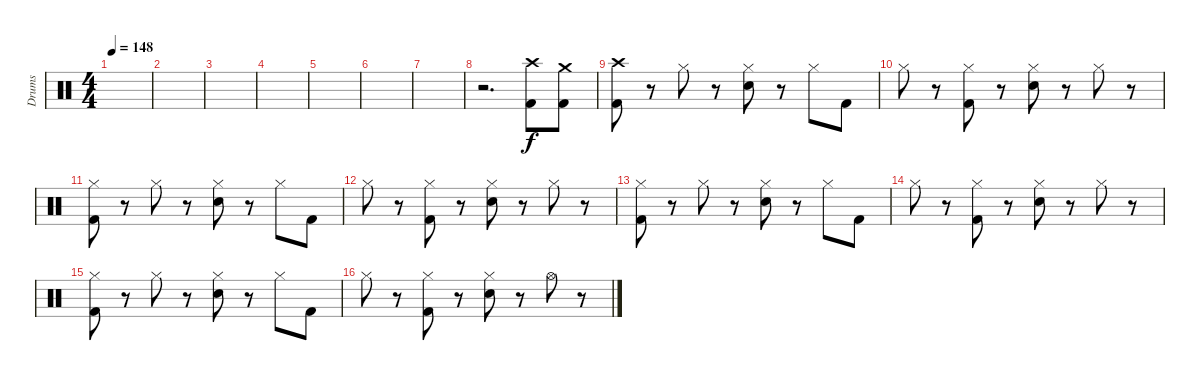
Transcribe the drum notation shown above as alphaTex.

\track ("Drums" "Drums") {instrument percussion}
\staff {score}
\articulation defaults
\ts (4 4)
\tempo 148
\clef neutral
\ks c
|
|
|
|
|
|
|
r.2{d} ("Crash high (hit)" "Kick (hit) 2").8 ("Crash medium (hit)" "Kick (hit) 2").8 |
("Crash high (hit)" "Kick (hit) 2").8 r.8 "Hi-Hat (closed)".8 r.8 ("Hi-Hat (closed)" "Snare (hit) 2").8 r.8 "Hi-Hat (closed)".8 "Kick (hit) 2".8 |
"Hi-Hat (closed)".8 r.8 ("Hi-Hat (closed)" "Kick (hit) 2").8 r.8 ("Hi-Hat (closed)" "Snare (hit) 2").8 r.8 "Hi-Hat (closed)".8 r.8 |
("Hi-Hat (closed)" "Kick (hit) 2").8 r.8 "Hi-Hat (closed)".8 r.8 ("Hi-Hat (closed)" "Snare (hit) 2").8 r.8 "Hi-Hat (closed)".8 "Kick (hit) 2".8 |
"Hi-Hat (closed)".8 r.8 ("Hi-Hat (closed)" "Kick (hit) 2").8 r.8 ("Hi-Hat (closed)" "Snare (hit) 2").8 r.8 "Hi-Hat (closed)".8 r.8 |
("Hi-Hat (closed)" "Kick (hit) 2").8 r.8 "Hi-Hat (closed)".8 r.8 ("Hi-Hat (closed)" "Snare (hit) 2").8 r.8 "Hi-Hat (closed)".8 "Kick (hit) 2".8 |
"Hi-Hat (closed)".8 r.8 ("Hi-Hat (closed)" "Kick (hit) 2").8 r.8 ("Hi-Hat (closed)" "Snare (hit) 2").8 r.8 "Hi-Hat (closed)".8 r.8 |
("Hi-Hat (closed)" "Kick (hit) 2").8 r.8 "Hi-Hat (closed)".8 r.8 ("Hi-Hat (closed)" "Snare (hit) 2").8 r.8 "Hi-Hat (closed)".8 "Kick (hit) 2".8 |
"Hi-Hat (closed)".8 r.8 ("Hi-Hat (closed)" "Kick (hit) 2").8 r.8 ("Hi-Hat (closed)" "Snare (hit) 2").8 r.8 "Hi-Hat (open)".8 r.8
